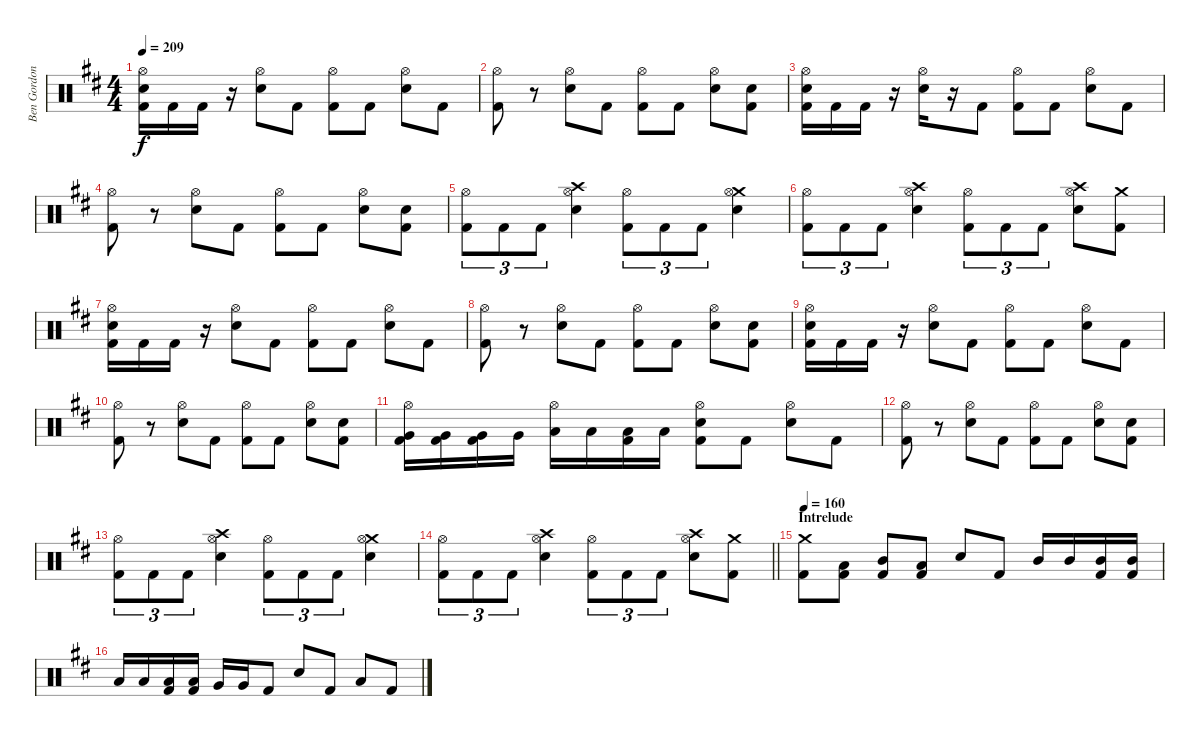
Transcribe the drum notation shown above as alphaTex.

\track ("Ben Gordon" "Ben Gordon") {instrument percussion}
\staff {score}
\articulation defaults
\ts (4 4)
\tempo 209
\clef neutral
\ks d
("Hi-Hat (open)" "Electric Snare (hit)" "Kick (hit) 2").16{dy f} "Kick (hit) 2".16 "Kick (hit) 2".16 r.16 ("Hi-Hat (open)" "Electric Snare (hit)").8 "Kick (hit) 2".8 ("Hi-Hat (open)" "Kick (hit) 2").8 "Kick (hit) 2".8 ("Hi-Hat (open)" "Electric Snare (hit)").8 "Kick (hit) 2".8 |
("Hi-Hat (open)" "Kick (hit) 2").8 r.8 ("Hi-Hat (open)" "Electric Snare (hit)").8 "Kick (hit) 2".8 ("Hi-Hat (open)" "Kick (hit) 2").8 "Kick (hit) 2".8 ("Hi-Hat (open)" "Electric Snare (hit)").8 ("Electric Snare (hit)" "Kick (hit) 2").8 |
("Hi-Hat (open)" "Electric Snare (hit)" "Kick (hit) 2").16 "Kick (hit) 2".16 "Kick (hit) 2".16 r.16 ("Hi-Hat (open)" "Electric Snare (hit)").16 r.16 "Kick (hit) 2".8 ("Hi-Hat (open)" "Kick (hit) 2").8 "Kick (hit) 2".8 ("Hi-Hat (open)" "Electric Snare (hit)").8 "Kick (hit) 2".8 |
("Hi-Hat (open)" "Kick (hit) 2").8 r.8 ("Hi-Hat (open)" "Electric Snare (hit)").8 "Kick (hit) 2".8 ("Hi-Hat (open)" "Kick (hit) 2").8 "Kick (hit) 2".8 ("Hi-Hat (open)" "Electric Snare (hit)").8 ("Electric Snare (hit)" "Kick (hit) 2").8 |
("Hi-Hat (open)" "Kick (hit) 2").8{tu (3 2)} "Kick (hit) 2".8{tu (3 2)} "Kick (hit) 2".8{tu (3 2)} ("Crash high (hit)" "Hi-Hat (open)" "Electric Snare (hit)").4 ("Hi-Hat (open)" "Kick (hit) 2").8{tu (3 2)} "Kick (hit) 2".8{tu (3 2)} "Kick (hit) 2".8{tu (3 2)} ("Crash medium (hit)" "Hi-Hat (open)" "Electric Snare (hit)").4 |
("Hi-Hat (open)" "Kick (hit) 2").8{tu (3 2)} "Kick (hit) 2".8{tu (3 2)} "Kick (hit) 2".8{tu (3 2)} ("Crash high (hit)" "Hi-Hat (open)" "Electric Snare (hit)").4 ("Hi-Hat (open)" "Kick (hit) 2").8{tu (3 2)} "Kick (hit) 2".8{tu (3 2)} "Kick (hit) 2".8{tu (3 2)} ("Crash high (hit)" "Hi-Hat (open)" "Electric Snare (hit)").8 ("Crash medium (hit)" "Kick (hit) 2").8 |
("Hi-Hat (open)" "Electric Snare (hit)" "Kick (hit) 2").16 "Kick (hit) 2".16 "Kick (hit) 2".16 r.16 ("Hi-Hat (open)" "Electric Snare (hit)").8 "Kick (hit) 2".8 ("Hi-Hat (open)" "Kick (hit) 2").8 "Kick (hit) 2".8 ("Hi-Hat (open)" "Electric Snare (hit)").8 "Kick (hit) 2".8 |
("Hi-Hat (open)" "Kick (hit) 2").8 r.8 ("Hi-Hat (open)" "Electric Snare (hit)").8 "Kick (hit) 2".8 ("Hi-Hat (open)" "Kick (hit) 2").8 "Kick (hit) 2".8 ("Hi-Hat (open)" "Electric Snare (hit)").8 ("Electric Snare (hit)" "Kick (hit) 2").8 |
("Hi-Hat (open)" "Electric Snare (hit)" "Kick (hit) 2").16 "Kick (hit) 2".16 "Kick (hit) 2".16 r.16 ("Hi-Hat (open)" "Electric Snare (hit)").8 "Kick (hit) 2".8 ("Hi-Hat (open)" "Kick (hit) 2").8 "Kick (hit) 2".8 ("Hi-Hat (open)" "Electric Snare (hit)").8 "Kick (hit) 2".8 |
("Hi-Hat (open)" "Kick (hit) 2").8 r.8 ("Hi-Hat (open)" "Electric Snare (hit)").8 "Kick (hit) 2".8 ("Hi-Hat (open)" "Kick (hit) 2").8 "Kick (hit) 2".8 ("Hi-Hat (open)" "Electric Snare (hit)").8 ("Electric Snare (hit)" "Kick (hit) 2").8 |
("Hi-Hat (open)" "Very Low Tom (hit)" "Kick (hit) 2").16 ("Very Low Tom (hit)" "Kick (hit) 2").16 ("Very Low Tom (hit)" "Kick (hit) 2").16 "Very Low Tom (hit)".16 ("Hi-Hat (open)" "Low Tom (hit)").16 "Low Tom (hit)".16 ("Low Tom (hit)" "Kick (hit) 2").16 "Low Tom (hit)".16 ("Hi-Hat (open)" "Electric Snare (hit)" "Kick (hit) 2").8 "Kick (hit) 2".8 ("Hi-Hat (open)" "Electric Snare (hit)").8 "Kick (hit) 2".8 |
("Hi-Hat (open)" "Kick (hit) 2").8 r.8 ("Hi-Hat (open)" "Electric Snare (hit)").8 "Kick (hit) 2".8 ("Hi-Hat (open)" "Kick (hit) 2").8 "Kick (hit) 2".8 ("Hi-Hat (open)" "Electric Snare (hit)").8 ("Electric Snare (hit)" "Kick (hit) 2").8 |
("Hi-Hat (open)" "Kick (hit) 2").8{tu (3 2)} "Kick (hit) 2".8{tu (3 2)} "Kick (hit) 2".8{tu (3 2)} ("Crash high (hit)" "Hi-Hat (open)" "Electric Snare (hit)").4 ("Hi-Hat (open)" "Kick (hit) 2").8{tu (3 2)} "Kick (hit) 2".8{tu (3 2)} "Kick (hit) 2".8{tu (3 2)} ("Crash medium (hit)" "Hi-Hat (open)" "Electric Snare (hit)").4 |
\barLineRight lightlight
("Hi-Hat (open)" "Kick (hit) 2").8{tu (3 2)} "Kick (hit) 2".8{tu (3 2)} "Kick (hit) 2".8{tu (3 2)} ("Crash high (hit)" "Hi-Hat (open)" "Electric Snare (hit)").4 ("Hi-Hat (open)" "Kick (hit) 2").8{tu (3 2)} "Kick (hit) 2".8{tu (3 2)} "Kick (hit) 2".8{tu (3 2)} ("Crash high (hit)" "Hi-Hat (open)" "Electric Snare (hit)").8 ("Crash medium (hit)" "Kick (hit) 2").8 |
\section ("" "Intrelude")
\tempo 160
("Crash medium (hit)" "Kick (hit) 2").8 ("Low Tom (hit)" "Kick (hit) 2").8 ("Mid Tom (hit)" "Kick (hit) 2").8 ("Low Tom (hit)" "Kick (hit) 2").8 "Electric Snare (hit)".8 "Kick (hit) 2".8 "Mid Tom (hit)".16 "Mid Tom (hit)".16 ("Mid Tom (hit)" "Kick (hit) 2").16 ("Mid Tom (hit)" "Kick (hit) 2").16 |
"Low Tom (hit)".16 "Low Tom (hit)".16 ("Low Tom (hit)" "Kick (hit) 2").16 ("Low Tom (hit)" "Kick (hit) 2").16 "Very Low Tom (hit)".16 "Very Low Tom (hit)".16 "Kick (hit) 2".8 "Electric Snare (hit)".8 "Kick (hit) 2".8 "Low Tom (hit)".8 "Kick (hit) 2".8
